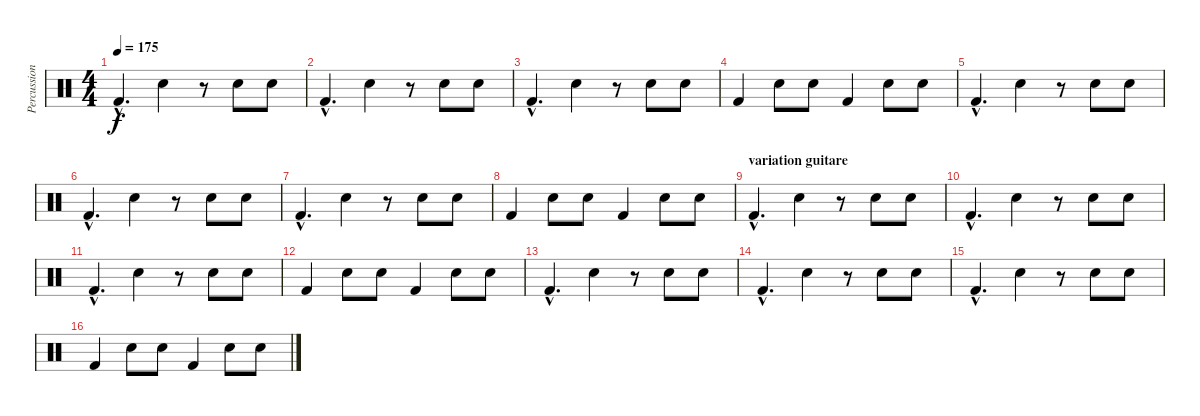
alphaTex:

\track ("Percussions" "Percussion") {instrument percussion}
\staff {score}
\articulation defaults
\ts (4 4)
\tempo 175
\clef neutral
\ks c "Kick (hit) 2"{hac}.4{d dy f} "Snare (hit) 2".4
r.8 "Snare (hit) 2".8 "Snare (hit) 2".8 |
"Kick (hit) 2"{hac}.4{d} "Snare (hit) 2".4 r.8 "Snare (hit) 2".8 "Snare (hit) 2".8 |
"Kick (hit) 2"{hac}.4{d} "Snare (hit) 2".4 r.8 "Snare (hit) 2".8 "Snare (hit) 2".8 |
"Kick (hit) 2".4 "Snare (hit) 2".8 "Snare (hit) 2".8 "Kick (hit) 2".4 "Snare (hit) 2".8 "Snare (hit) 2".8 |
"Kick (hit) 2"{hac}.4{d} "Snare (hit) 2".4 r.8 "Snare (hit) 2".8 "Snare (hit) 2".8 |
"Kick (hit) 2"{hac}.4{d} "Snare (hit) 2".4 r.8 "Snare (hit) 2".8 "Snare (hit) 2".8 |
"Kick (hit) 2"{hac}.4{d} "Snare (hit) 2".4 r.8 "Snare (hit) 2".8 "Snare (hit) 2".8 |
"Kick (hit) 2".4 "Snare (hit) 2".8 "Snare (hit) 2".8 "Kick (hit) 2".4 "Snare (hit) 2".8 "Snare (hit) 2".8 |
\section ("" "variation guitare")
"Kick (hit) 2"{hac}.4{d} "Snare (hit) 2".4 r.8 "Snare (hit) 2".8 "Snare (hit) 2".8 |
"Kick (hit) 2"{hac}.4{d} "Snare (hit) 2".4 r.8 "Snare (hit) 2".8 "Snare (hit) 2".8 |
"Kick (hit) 2"{hac}.4{d} "Snare (hit) 2".4 r.8 "Snare (hit) 2".8 "Snare (hit) 2".8 |
"Kick (hit) 2".4 "Snare (hit) 2".8 "Snare (hit) 2".8 "Kick (hit) 2".4 "Snare (hit) 2".8 "Snare (hit) 2".8 |
"Kick (hit) 2"{hac}.4{d} "Snare (hit) 2".4 r.8 "Snare (hit) 2".8 "Snare (hit) 2".8 |
"Kick (hit) 2"{hac}.4{d} "Snare (hit) 2".4 r.8 "Snare (hit) 2".8 "Snare (hit) 2".8 |
"Kick (hit) 2"{hac}.4{d} "Snare (hit) 2".4 r.8 "Snare (hit) 2".8 "Snare (hit) 2".8 |
"Kick (hit) 2".4 "Snare (hit) 2".8 "Snare (hit) 2".8 "Kick (hit) 2".4 "Snare (hit) 2".8 "Snare (hit) 2".8
